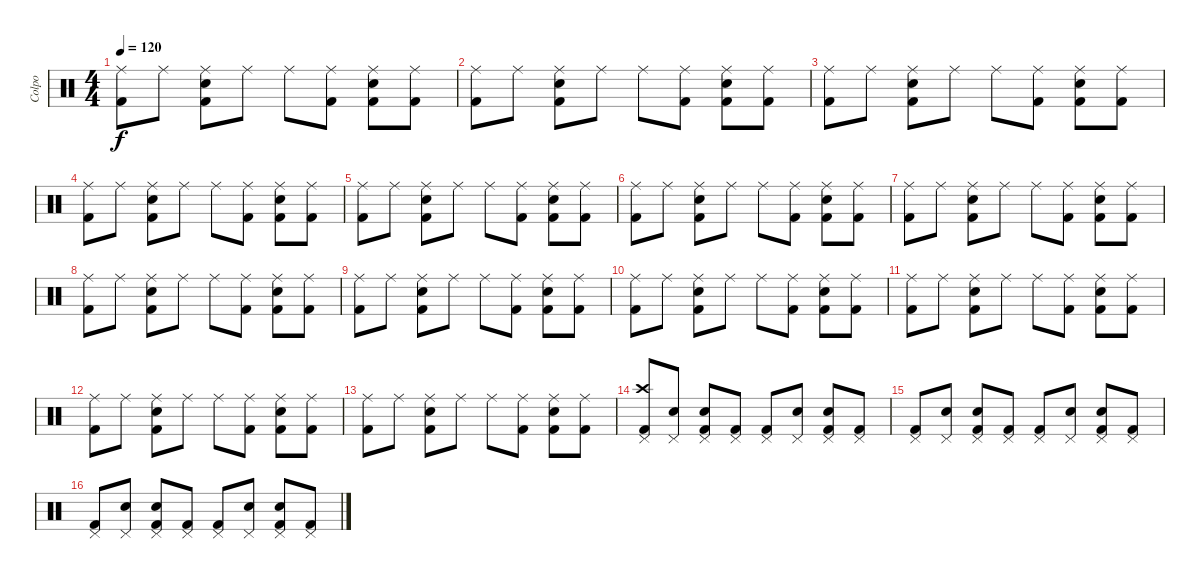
\track ("Colpo" "Colpo") {instrument percussion}
\staff {score}
\articulation defaults
\ts (4 4)
\tempo 120
\clef neutral
\ks c
("Ride (middle)" "Kick (hit) 2").8{dy f} "Ride (middle)".8 ("Ride (middle)" "Snare (hit) 2" "Kick (hit) 2").8 "Ride (middle)".8 "Ride (middle)".8 ("Ride (middle)" "Kick (hit) 2").8 ("Ride (middle)" "Snare (hit) 2" "Kick (hit) 2").8 ("Ride (middle)" "Kick (hit) 2").8 |
("Ride (middle)" "Kick (hit) 2").8 "Ride (middle)".8 ("Ride (middle)" "Snare (hit) 2" "Kick (hit) 2").8 "Ride (middle)".8 "Ride (middle)".8 ("Ride (middle)" "Kick (hit) 2").8 ("Ride (middle)" "Snare (hit) 2" "Kick (hit) 2").8 ("Ride (middle)" "Kick (hit) 2").8 |
("Ride (middle)" "Kick (hit) 2").8 "Ride (middle)".8 ("Ride (middle)" "Snare (hit) 2" "Kick (hit) 2").8 "Ride (middle)".8 "Ride (middle)".8 ("Ride (middle)" "Kick (hit) 2").8 ("Ride (middle)" "Snare (hit) 2" "Kick (hit) 2").8 ("Ride (middle)" "Kick (hit) 2").8 |
("Ride (middle)" "Kick (hit) 2").8 "Ride (middle)".8 ("Ride (middle)" "Snare (hit) 2" "Kick (hit) 2").8 "Ride (middle)".8 "Ride (middle)".8 ("Ride (middle)" "Kick (hit) 2").8 ("Ride (middle)" "Snare (hit) 2" "Kick (hit) 2").8 ("Ride (middle)" "Kick (hit) 2").8 |
("Ride (middle)" "Kick (hit) 2").8 "Ride (middle)".8 ("Ride (middle)" "Snare (hit) 2" "Kick (hit) 2").8 "Ride (middle)".8 "Ride (middle)".8 ("Ride (middle)" "Kick (hit) 2").8 ("Ride (middle)" "Snare (hit) 2" "Kick (hit) 2").8 ("Ride (middle)" "Kick (hit) 2").8 |
("Ride (middle)" "Kick (hit) 2").8 "Ride (middle)".8 ("Ride (middle)" "Snare (hit) 2" "Kick (hit) 2").8 "Ride (middle)".8 "Ride (middle)".8 ("Ride (middle)" "Kick (hit) 2").8 ("Ride (middle)" "Snare (hit) 2" "Kick (hit) 2").8 ("Ride (middle)" "Kick (hit) 2").8 |
("Ride (middle)" "Kick (hit) 2").8 "Ride (middle)".8 ("Ride (middle)" "Snare (hit) 2" "Kick (hit) 2").8 "Ride (middle)".8 "Ride (middle)".8 ("Ride (middle)" "Kick (hit) 2").8 ("Ride (middle)" "Snare (hit) 2" "Kick (hit) 2").8 ("Ride (middle)" "Kick (hit) 2").8 |
("Ride (middle)" "Kick (hit) 2").8 "Ride (middle)".8 ("Ride (middle)" "Snare (hit) 2" "Kick (hit) 2").8 "Ride (middle)".8 "Ride (middle)".8 ("Ride (middle)" "Kick (hit) 2").8 ("Ride (middle)" "Snare (hit) 2" "Kick (hit) 2").8 ("Ride (middle)" "Kick (hit) 2").8 |
("Ride (middle)" "Kick (hit) 2").8 "Ride (middle)".8 ("Ride (middle)" "Snare (hit) 2" "Kick (hit) 2").8 "Ride (middle)".8 "Ride (middle)".8 ("Ride (middle)" "Kick (hit) 2").8 ("Ride (middle)" "Snare (hit) 2" "Kick (hit) 2").8 ("Ride (middle)" "Kick (hit) 2").8 |
("Ride (middle)" "Kick (hit) 2").8 "Ride (middle)".8 ("Ride (middle)" "Snare (hit) 2" "Kick (hit) 2").8 "Ride (middle)".8 "Ride (middle)".8 ("Ride (middle)" "Kick (hit) 2").8 ("Ride (middle)" "Snare (hit) 2" "Kick (hit) 2").8 ("Ride (middle)" "Kick (hit) 2").8 |
("Ride (middle)" "Kick (hit) 2").8 "Ride (middle)".8 ("Ride (middle)" "Snare (hit) 2" "Kick (hit) 2").8 "Ride (middle)".8 "Ride (middle)".8 ("Ride (middle)" "Kick (hit) 2").8 ("Ride (middle)" "Snare (hit) 2" "Kick (hit) 2").8 ("Ride (middle)" "Kick (hit) 2").8 |
("Ride (middle)" "Kick (hit) 2").8 "Ride (middle)".8 ("Ride (middle)" "Snare (hit) 2" "Kick (hit) 2").8 "Ride (middle)".8 "Ride (middle)".8 ("Ride (middle)" "Kick (hit) 2").8 ("Ride (middle)" "Snare (hit) 2" "Kick (hit) 2").8 ("Ride (middle)" "Kick (hit) 2").8 |
("Ride (middle)" "Kick (hit) 2").8 "Ride (middle)".8 ("Ride (middle)" "Snare (hit) 2" "Kick (hit) 2").8 "Ride (middle)".8 "Ride (middle)".8 ("Ride (middle)" "Kick (hit) 2").8 ("Ride (middle)" "Snare (hit) 2" "Kick (hit) 2").8 ("Ride (middle)" "Kick (hit) 2").8 |
("Crash high (hit)" "Pedal Hi-Hat (hit)" "Kick (hit) 2").8 ("Pedal Hi-Hat (hit)" "Snare (hit)").8 ("Pedal Hi-Hat (hit)" "Snare (hit) 2" "Kick (hit) 2").8 ("Pedal Hi-Hat (hit)" "Kick (hit) 2").8 ("Pedal Hi-Hat (hit)" "Kick (hit) 2").8 ("Pedal Hi-Hat (hit)" "Snare (hit)").8 ("Pedal Hi-Hat (hit)" "Snare (hit) 2" "Kick (hit) 2").8 ("Pedal Hi-Hat (hit)" "Kick (hit) 2").8 |
("Pedal Hi-Hat (hit)" "Kick (hit) 2").8 ("Pedal Hi-Hat (hit)" "Snare (hit)").8 ("Pedal Hi-Hat (hit)" "Snare (hit) 2" "Kick (hit) 2").8 ("Pedal Hi-Hat (hit)" "Kick (hit) 2").8 ("Pedal Hi-Hat (hit)" "Kick (hit) 2").8 ("Pedal Hi-Hat (hit)" "Snare (hit)").8 ("Pedal Hi-Hat (hit)" "Snare (hit) 2" "Kick (hit) 2").8 ("Pedal Hi-Hat (hit)" "Kick (hit) 2").8 |
("Pedal Hi-Hat (hit)" "Kick (hit) 2").8 ("Pedal Hi-Hat (hit)" "Snare (hit)").8 ("Pedal Hi-Hat (hit)" "Snare (hit) 2" "Kick (hit) 2").8 ("Pedal Hi-Hat (hit)" "Kick (hit) 2").8 ("Pedal Hi-Hat (hit)" "Kick (hit) 2").8 ("Pedal Hi-Hat (hit)" "Snare (hit)").8 ("Pedal Hi-Hat (hit)" "Snare (hit) 2" "Kick (hit) 2").8 ("Pedal Hi-Hat (hit)" "Kick (hit) 2").8
